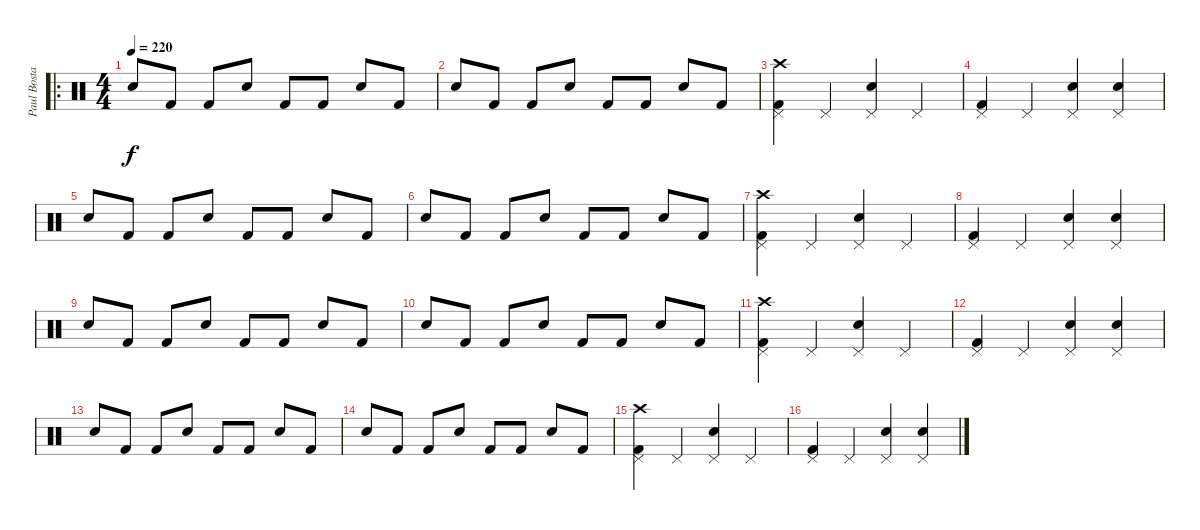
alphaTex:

\track ("Paul Bostaph" "Paul Bosta") {instrument percussion}
\staff {score}
\articulation defaults
\ro
\ts (4 4)
\tempo 220
\clef neutral
\ks c "Snare (hit) 2".8{dy f} "Kick (hit) 2".8 "Kick (hit) 2".8 "Snare (hit) 2".8 "Kick (hit) 2".8 "Kick (hit) 2".8 "Snare (hit) 2".8 "Kick (hit) 2".8
|
"Snare (hit) 2".8 "Kick (hit) 2".8 "Kick (hit) 2".8 "Snare (hit) 2".8 "Kick (hit) 2".8 "Kick (hit) 2".8 "Snare (hit) 2".8 "Kick (hit) 2".8 |
("Kick (hit) 2" "Pedal Hi-Hat (hit)" "Crash high (hit)").4 "Pedal Hi-Hat (hit)".4 ("Snare (hit) 2" "Pedal Hi-Hat (hit)").4 "Pedal Hi-Hat (hit)".4 |
("Kick (hit) 2" "Pedal Hi-Hat (hit)").4 "Pedal Hi-Hat (hit)".4 ("Snare (hit) 2" "Pedal Hi-Hat (hit)").4 ("Snare (hit) 2" "Pedal Hi-Hat (hit)").4 |
"Snare (hit) 2".8 "Kick (hit) 2".8 "Kick (hit) 2".8 "Snare (hit) 2".8 "Kick (hit) 2".8 "Kick (hit) 2".8 "Snare (hit) 2".8 "Kick (hit) 2".8 |
"Snare (hit) 2".8 "Kick (hit) 2".8 "Kick (hit) 2".8 "Snare (hit) 2".8 "Kick (hit) 2".8 "Kick (hit) 2".8 "Snare (hit) 2".8 "Kick (hit) 2".8 |
("Kick (hit) 2" "Pedal Hi-Hat (hit)" "Crash high (hit)").4 "Pedal Hi-Hat (hit)".4 ("Snare (hit) 2" "Pedal Hi-Hat (hit)").4 "Pedal Hi-Hat (hit)".4 |
("Kick (hit) 2" "Pedal Hi-Hat (hit)").4 "Pedal Hi-Hat (hit)".4 ("Snare (hit) 2" "Pedal Hi-Hat (hit)").4 ("Snare (hit) 2" "Pedal Hi-Hat (hit)").4 |
"Snare (hit) 2".8 "Kick (hit) 2".8 "Kick (hit) 2".8 "Snare (hit) 2".8 "Kick (hit) 2".8 "Kick (hit) 2".8 "Snare (hit) 2".8 "Kick (hit) 2".8 |
"Snare (hit) 2".8 "Kick (hit) 2".8 "Kick (hit) 2".8 "Snare (hit) 2".8 "Kick (hit) 2".8 "Kick (hit) 2".8 "Snare (hit) 2".8 "Kick (hit) 2".8 |
("Kick (hit) 2" "Pedal Hi-Hat (hit)" "Crash high (hit)").4 "Pedal Hi-Hat (hit)".4 ("Snare (hit) 2" "Pedal Hi-Hat (hit)").4 "Pedal Hi-Hat (hit)".4 |
("Kick (hit) 2" "Pedal Hi-Hat (hit)").4 "Pedal Hi-Hat (hit)".4 ("Snare (hit) 2" "Pedal Hi-Hat (hit)").4 ("Snare (hit) 2" "Pedal Hi-Hat (hit)").4 |
"Snare (hit) 2".8 "Kick (hit) 2".8 "Kick (hit) 2".8 "Snare (hit) 2".8 "Kick (hit) 2".8 "Kick (hit) 2".8 "Snare (hit) 2".8 "Kick (hit) 2".8 |
"Snare (hit) 2".8 "Kick (hit) 2".8 "Kick (hit) 2".8 "Snare (hit) 2".8 "Kick (hit) 2".8 "Kick (hit) 2".8 "Snare (hit) 2".8 "Kick (hit) 2".8 |
("Kick (hit) 2" "Pedal Hi-Hat (hit)" "Crash high (hit)").4 "Pedal Hi-Hat (hit)".4 ("Snare (hit) 2" "Pedal Hi-Hat (hit)").4 "Pedal Hi-Hat (hit)".4 |
("Kick (hit) 2" "Pedal Hi-Hat (hit)").4 "Pedal Hi-Hat (hit)".4 ("Snare (hit) 2" "Pedal Hi-Hat (hit)").4 ("Snare (hit) 2" "Pedal Hi-Hat (hit)").4
